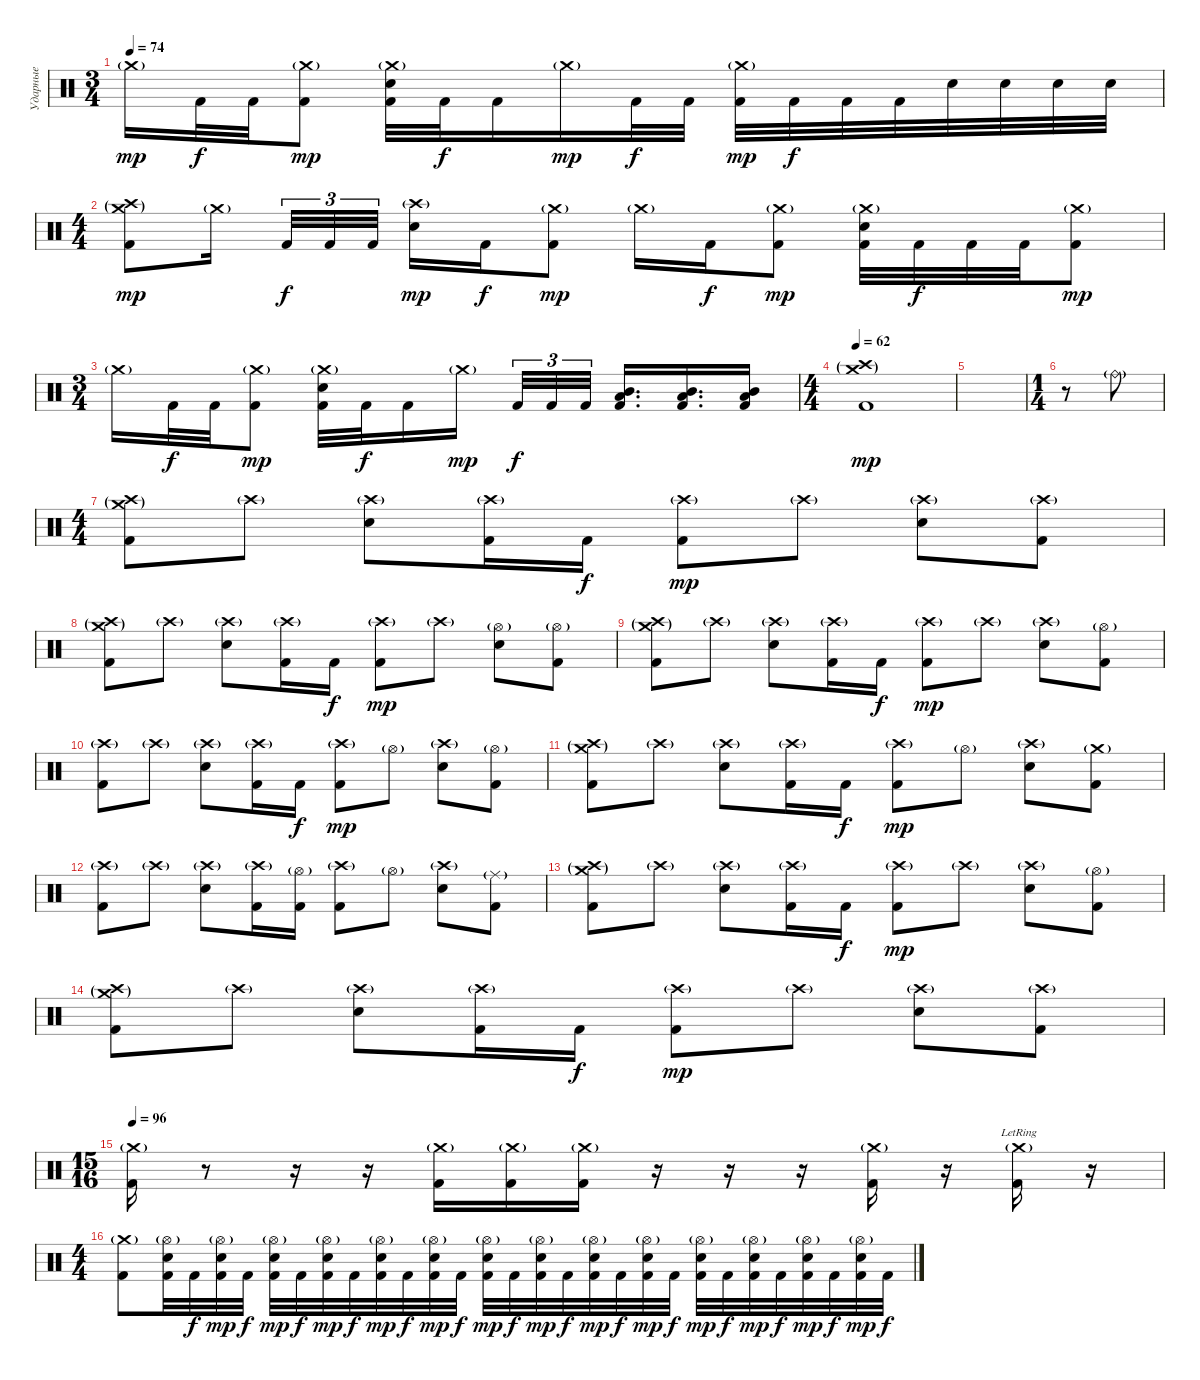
\track ("Ударные" "Ударные") {instrument percussion}
\staff {score}
\articulation defaults
\ts (3 4)
\tempo 74
\clef neutral
\ks c "Crash medium (hit)"{g}.16{dy mp} "Kick (hit) 2".32{dy f} "Kick (hit) 2".32
("Crash medium (hit)"{g} "Kick (hit) 2").8{dy mp} ("Crash medium (hit)"{g} "Electric Snare (hit)" "Kick (hit) 2").32 "Kick (hit) 2".32{dy f} "Kick (hit) 2".16 "Crash medium (hit)"{g}.16{dy mp} "Kick (hit) 2".32{dy f} "Kick (hit) 2".32 ("Crash medium (hit)"{g} "Kick (hit) 2").32{dy mp} "Kick (hit) 2".32{dy f} "Kick (hit) 2".32 "Kick (hit) 2".32 "Electric Snare (hit)".32 "Electric Snare (hit)".32 "Electric Snare (hit)".32 "Electric Snare (hit)".32 |
\ts (4 4)
("Crash high (hit)"{g} "Crash medium (hit)"{g} "Kick (hit) 2").8{dy mp} "Crash medium (hit)"{g}.16 "Kick (hit) 2".32{tu (3 2) dy f} "Kick (hit) 2".32{tu (3 2)} "Kick (hit) 2".32{tu (3 2)} ("Crash high (hit)"{g} "Electric Snare (hit)").16{dy mp} "Kick (hit) 2".16{dy f} ("Crash medium (hit)"{g} "Kick (hit) 2").8{dy mp} "Crash medium (hit)"{g}.16 "Kick (hit) 2".16{dy f} ("Crash medium (hit)"{g} "Kick (hit) 2").8{dy mp} ("Crash medium (hit)"{g} "Electric Snare (hit)" "Kick (hit) 2").32 "Kick (hit) 2".32{dy f} "Kick (hit) 2".32 "Kick (hit) 2".32 ("Crash medium (hit)"{g} "Kick (hit) 2").8{dy mp} |
\ts (3 4)
"Crash medium (hit)"{g}.16 "Kick (hit) 2".32{dy f} "Kick (hit) 2".32 ("Crash medium (hit)"{g} "Kick (hit) 2").8{dy mp} ("Crash medium (hit)"{g} "Electric Snare (hit)" "Kick (hit) 2").32 "Kick (hit) 2".32{dy f} "Kick (hit) 2".16 "Crash medium (hit)"{g}.16{dy mp} "Kick (hit) 2".32{tu (3 2) dy f} "Kick (hit) 2".32{tu (3 2)} "Kick (hit) 2".32{tu (3 2)} ("Mid Tom (hit)" "Low Tom (hit)" "Kick (hit) 2").16{d} ("Mid Tom (hit)" "Low Tom (hit)" "Kick (hit) 2").16{d} ("Mid Tom (hit)" "Low Tom (hit)" "Kick (hit) 2").16 |
\ts (4 4)
\tempo 62
("Crash high (hit)"{g} "Crash medium (hit)"{g} "Kick (hit) 2").1{dy mp} |
|
\ts (1 4)
r.8 "Ride (bell)"{g}.8 |
\ts (4 4)
("Crash high (hit)"{g} "Crash medium (hit)"{g} "Kick (hit) 2").8 "Crash high (hit)"{g}.8 ("Crash high (hit)"{g} "Electric Snare (hit)").8 ("Crash high (hit)"{g} "Kick (hit) 2").16 "Kick (hit) 2".16{dy f} ("Crash high (hit)"{g} "Kick (hit) 2").8{dy mp} "Crash high (hit)"{g}.8 ("Crash high (hit)"{g} "Electric Snare (hit)").8 ("Crash high (hit)"{g} "Kick (hit) 2").8 |
("Crash high (hit)"{g} "Crash medium (hit)"{g} "Kick (hit) 2").8 "Crash high (hit)"{g}.8 ("Crash high (hit)"{g} "Electric Snare (hit)").8 ("Crash high (hit)"{g} "Kick (hit) 2").16 "Kick (hit) 2".16{dy f} ("Crash high (hit)"{g} "Kick (hit) 2").8{dy mp} "Crash high (hit)"{g}.8 ("Hi-Hat (open)"{g} "Electric Snare (hit)").8 ("Hi-Hat (open)"{g} "Kick (hit) 2").8 |
("Crash high (hit)"{g} "Crash medium (hit)"{g} "Kick (hit) 2").8 "Crash high (hit)"{g}.8 ("Crash high (hit)"{g} "Electric Snare (hit)").8 ("Crash high (hit)"{g} "Kick (hit) 2").16 "Kick (hit) 2".16{dy f} ("Crash high (hit)"{g} "Kick (hit) 2").8{dy mp} "Crash high (hit)"{g}.8 ("Crash high (hit)"{g} "Electric Snare (hit)").8 ("Hi-Hat (open)"{g} "Kick (hit) 2").8 |
("Crash high (hit)"{g} "Kick (hit) 2").8 "Crash high (hit)"{g}.8 ("Crash high (hit)"{g} "Electric Snare (hit)").8 ("Crash high (hit)"{g} "Kick (hit) 2").16 "Kick (hit) 2".16{dy f} ("Crash high (hit)"{g} "Kick (hit) 2").8{dy mp} "Hi-Hat (open)"{g}.8 ("Crash high (hit)"{g} "Electric Snare (hit)").8 ("Hi-Hat (open)"{g} "Kick (hit) 2").8 |
("Crash high (hit)"{g} "Crash medium (hit)"{g} "Kick (hit) 2").8 "Crash high (hit)"{g}.8 ("Crash high (hit)"{g} "Electric Snare (hit)").8 ("Crash high (hit)"{g} "Kick (hit) 2").16 "Kick (hit) 2".16{dy f} ("Crash high (hit)"{g} "Kick (hit) 2").8{dy mp} "Hi-Hat (open)"{g}.8 ("Crash high (hit)"{g} "Electric Snare (hit)").8 ("Crash medium (hit)"{g} "Kick (hit) 2").8 |
("Crash high (hit)"{g} "Kick (hit) 2").8 "Crash high (hit)"{g}.8 ("Crash high (hit)"{g} "Electric Snare (hit)").8 ("Crash high (hit)"{g} "Kick (hit) 2").16 ("Hi-Hat (open)"{g} "Kick (hit) 2").16 ("Crash high (hit)"{g} "Kick (hit) 2").8 "Hi-Hat (open)"{g}.8 ("Crash high (hit)"{g} "Electric Snare (hit)").8 ("Ride (middle)"{g} "Kick (hit) 2").8 |
("Crash high (hit)"{g} "Crash medium (hit)"{g} "Kick (hit) 2").8 "Crash high (hit)"{g}.8 ("Crash high (hit)"{g} "Electric Snare (hit)").8 ("Crash high (hit)"{g} "Kick (hit) 2").16 "Kick (hit) 2".16{dy f} ("Crash high (hit)"{g} "Kick (hit) 2").8{dy mp} "Crash high (hit)"{g}.8 ("Crash high (hit)"{g} "Electric Snare (hit)").8 ("Hi-Hat (open)"{g} "Kick (hit) 2").8 |
("Crash high (hit)"{g} "Crash medium (hit)"{g} "Kick (hit) 2").8 "Crash high (hit)"{g}.8 ("Crash high (hit)"{g} "Electric Snare (hit)").8 ("Crash high (hit)"{g} "Kick (hit) 2").16 "Kick (hit) 2".16{dy f} ("Crash high (hit)"{g} "Kick (hit) 2").8{dy mp} "Crash high (hit)"{g}.8 ("Crash high (hit)"{g} "Electric Snare (hit)").8 ("Crash high (hit)"{g} "Kick (hit) 2").8 |
\ts (15 16)
\tempo 96
("Crash medium (hit)"{g} "Kick (hit) 2").16 r.8{volume 0} r.16 r.16 ("Crash medium (hit)"{g} "Kick (hit) 2").16{volume 16} ("Crash medium (hit)"{g} "Kick (hit) 2").16 ("Crash medium (hit)"{g} "Kick (hit) 2").16 r.16{volume 0} r.16 r.16 ("Crash medium (hit)"{g} "Kick (hit) 2").16{volume 16} r.16{volume 0} ("Crash medium (hit)"{g lr} "Kick (hit) 2").16{volume 16} r.16{volume 0} |
\ts (4 4)
("Crash medium (hit)"{g} "Kick (hit) 2").8{volume 16} ("Hi-Hat (open)"{g} "Electric Snare (hit)" "Kick (hit) 2").32 "Kick (hit) 2".32{dy f} ("Hi-Hat (open)"{g} "Electric Snare (hit)" "Kick (hit) 2").32{dy mp} "Kick (hit) 2".32{dy f} ("Hi-Hat (open)"{g} "Electric Snare (hit)" "Kick (hit) 2").32{dy mp} "Kick (hit) 2".32{dy f} ("Hi-Hat (open)"{g} "Electric Snare (hit)" "Kick (hit) 2").32{dy mp} "Kick (hit) 2".32{dy f} ("Hi-Hat (open)"{g} "Electric Snare (hit)" "Kick (hit) 2").32{dy mp} "Kick (hit) 2".32{dy f} ("Hi-Hat (open)"{g} "Electric Snare (hit)" "Kick (hit) 2").32{dy mp} "Kick (hit) 2".32{dy f} ("Hi-Hat (open)"{g} "Electric Snare (hit)" "Kick (hit) 2").32{dy mp} "Kick (hit) 2".32{dy f} ("Hi-Hat (open)"{g} "Electric Snare (hit)" "Kick (hit) 2").32{dy mp} "Kick (hit) 2".32{dy f} ("Hi-Hat (open)"{g} "Electric Snare (hit)" "Kick (hit) 2").32{dy mp} "Kick (hit) 2".32{dy f} ("Hi-Hat (open)"{g} "Electric Snare (hit)" "Kick (hit) 2").32{dy mp} "Kick (hit) 2".32{dy f} ("Hi-Hat (open)"{g} "Electric Snare (hit)" "Kick (hit) 2").32{dy mp} "Kick (hit) 2".32{dy f} ("Hi-Hat (open)"{g} "Electric Snare (hit)" "Kick (hit) 2").32{dy mp} "Kick (hit) 2".32{dy f} ("Hi-Hat (open)"{g} "Electric Snare (hit)" "Kick (hit) 2").32{dy mp} "Kick (hit) 2".32{dy f} ("Hi-Hat (open)"{g} "Electric Snare (hit)" "Kick (hit) 2").32{dy mp} "Kick (hit) 2".32{dy f}
